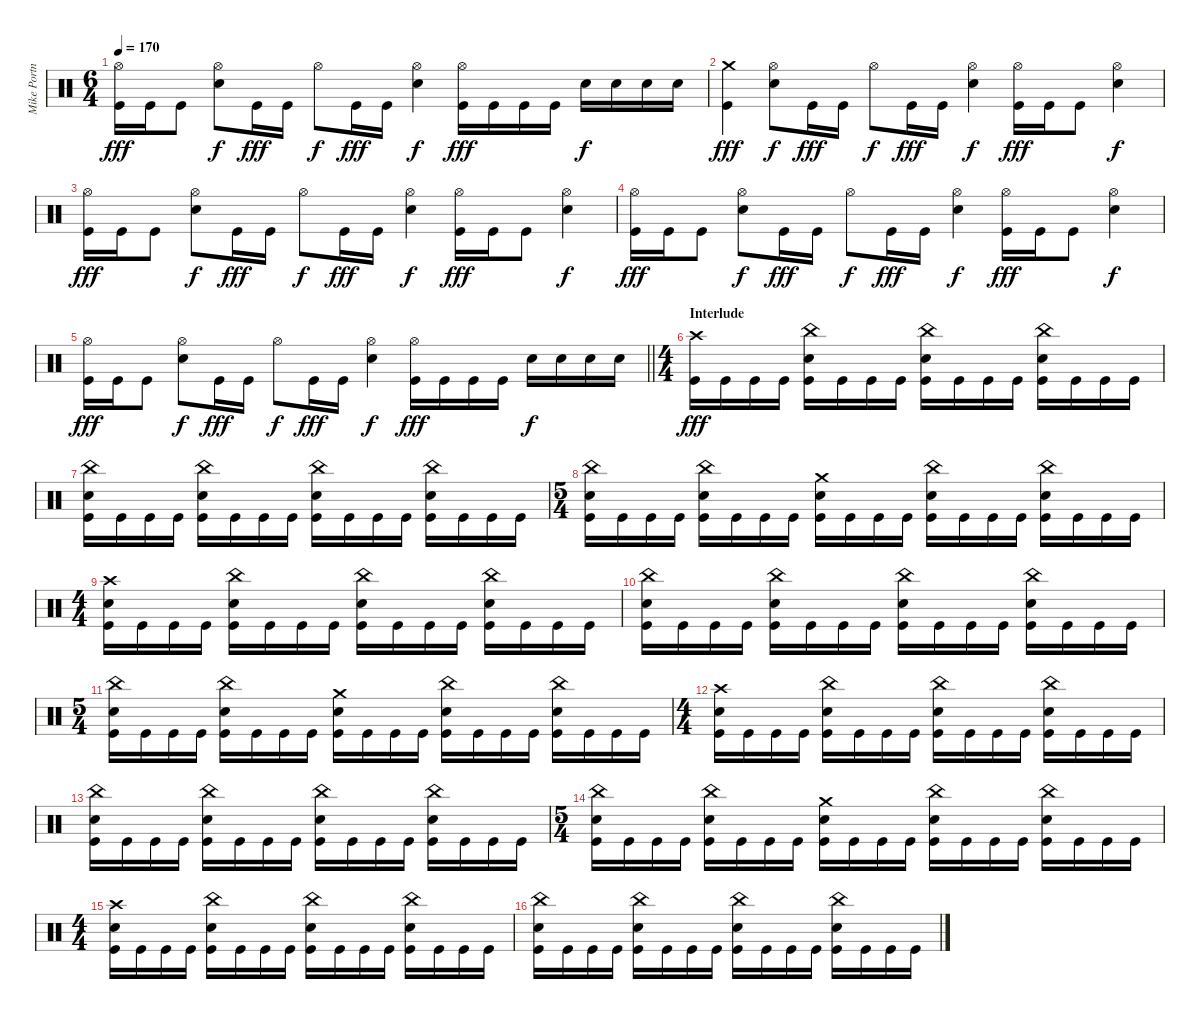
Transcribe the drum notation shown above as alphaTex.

\track ("Mike Portnoy" "Mike Portn") {instrument percussion}
\staff {score}
\articulation defaults
\ts (6 4)
\tempo 170
\clef neutral
\ks c
("Hi-Hat (open)" "Kick (hit)").16{dy fff} "Kick (hit)".16 "Kick (hit)".8 ("Hi-Hat (open)" "Electric Snare (hit)").8{dy f} "Kick (hit)".16{dy fff} "Kick (hit)".16 "Hi-Hat (open)".8{dy f} "Kick (hit)".16{dy fff} "Kick (hit)".16 ("Hi-Hat (open)" "Electric Snare (hit)").4{dy f} ("Hi-Hat (open)" "Kick (hit)").16{dy fff} "Kick (hit)".16 "Kick (hit)".16 "Kick (hit)".16 "Electric Snare (hit)".16{dy f} "Electric Snare (hit)".16 "Electric Snare (hit)".16 "Electric Snare (hit)".16 |
("Crash medium (hit)" "Kick (hit)").4{dy fff} ("Hi-Hat (open)" "Electric Snare (hit)").8{dy f} "Kick (hit)".16{dy fff} "Kick (hit)".16 "Hi-Hat (open)".8{dy f} "Kick (hit)".16{dy fff} "Kick (hit)".16 ("Hi-Hat (open)" "Electric Snare (hit)").4{dy f} ("Hi-Hat (open)" "Kick (hit)").16{dy fff} "Kick (hit)".16 "Kick (hit)".8 ("Hi-Hat (open)" "Electric Snare (hit)").4{dy f} |
("Hi-Hat (open)" "Kick (hit)").16{dy fff} "Kick (hit)".16 "Kick (hit)".8 ("Hi-Hat (open)" "Electric Snare (hit)").8{dy f} "Kick (hit)".16{dy fff} "Kick (hit)".16 "Hi-Hat (open)".8{dy f} "Kick (hit)".16{dy fff} "Kick (hit)".16 ("Hi-Hat (open)" "Electric Snare (hit)").4{dy f} ("Hi-Hat (open)" "Kick (hit)").16{dy fff} "Kick (hit)".16 "Kick (hit)".8 ("Hi-Hat (open)" "Electric Snare (hit)").4{dy f} |
("Hi-Hat (open)" "Kick (hit)").16{dy fff} "Kick (hit)".16 "Kick (hit)".8 ("Hi-Hat (open)" "Electric Snare (hit)").8{dy f} "Kick (hit)".16{dy fff} "Kick (hit)".16 "Hi-Hat (open)".8{dy f} "Kick (hit)".16{dy fff} "Kick (hit)".16 ("Hi-Hat (open)" "Electric Snare (hit)").4{dy f} ("Hi-Hat (open)" "Kick (hit)").16{dy fff} "Kick (hit)".16 "Kick (hit)".8 ("Hi-Hat (open)" "Electric Snare (hit)").4{dy f} |
\barLineRight lightlight
("Hi-Hat (open)" "Kick (hit)").16{dy fff} "Kick (hit)".16 "Kick (hit)".8 ("Hi-Hat (open)" "Electric Snare (hit)").8{dy f} "Kick (hit)".16{dy fff} "Kick (hit)".16 "Hi-Hat (open)".8{dy f} "Kick (hit)".16{dy fff} "Kick (hit)".16 ("Hi-Hat (open)" "Electric Snare (hit)").4{dy f} ("Hi-Hat (open)" "Kick (hit)").16{dy fff} "Kick (hit)".16 "Kick (hit)".16 "Kick (hit)".16 "Electric Snare (hit)".16{dy f} "Electric Snare (hit)".16 "Electric Snare (hit)".16 "Electric Snare (hit)".16 |
\ts (4 4)
\section ("" "Interlude")
("Crash high (hit)" "Kick (hit)").16{dy fff} "Kick (hit)".16 "Kick (hit)".16 "Kick (hit)".16 ("China (hit)" "Electric Snare (hit)" "Kick (hit)").16 "Kick (hit)".16 "Kick (hit)".16 "Kick (hit)".16 ("China (hit)" "Electric Snare (hit)" "Kick (hit)").16 "Kick (hit)".16 "Kick (hit)".16 "Kick (hit)".16 ("China (hit)" "Electric Snare (hit)" "Kick (hit)").16 "Kick (hit)".16 "Kick (hit)".16 "Kick (hit)".16 |
("China (hit)" "Electric Snare (hit)" "Kick (hit)").16 "Kick (hit)".16 "Kick (hit)".16 "Kick (hit)".16 ("China (hit)" "Electric Snare (hit)" "Kick (hit)").16 "Kick (hit)".16 "Kick (hit)".16 "Kick (hit)".16 ("China (hit)" "Electric Snare (hit)" "Kick (hit)").16 "Kick (hit)".16 "Kick (hit)".16 "Kick (hit)".16 ("China (hit)" "Electric Snare (hit)" "Kick (hit)").16 "Kick (hit)".16 "Kick (hit)".16 "Kick (hit)".16 |
\ts (5 4)
("China (hit)" "Electric Snare (hit)" "Kick (hit)").16 "Kick (hit)".16 "Kick (hit)".16 "Kick (hit)".16 ("China (hit)" "Electric Snare (hit)" "Kick (hit)").16 "Kick (hit)".16 "Kick (hit)".16 "Kick (hit)".16 ("Crash medium (hit)" "Electric Snare (hit)" "Kick (hit)").16 "Kick (hit)".16 "Kick (hit)".16 "Kick (hit)".16 ("China (hit)" "Electric Snare (hit)" "Kick (hit)").16 "Kick (hit)".16 "Kick (hit)".16 "Kick (hit)".16 ("China (hit)" "Electric Snare (hit)" "Kick (hit)").16 "Kick (hit)".16 "Kick (hit)".16 "Kick (hit)".16 |
\ts (4 4)
("Crash high (hit)" "Electric Snare (hit)" "Kick (hit)").16 "Kick (hit)".16 "Kick (hit)".16 "Kick (hit)".16 ("China (hit)" "Electric Snare (hit)" "Kick (hit)").16 "Kick (hit)".16 "Kick (hit)".16 "Kick (hit)".16 ("China (hit)" "Electric Snare (hit)" "Kick (hit)").16 "Kick (hit)".16 "Kick (hit)".16 "Kick (hit)".16 ("China (hit)" "Electric Snare (hit)" "Kick (hit)").16 "Kick (hit)".16 "Kick (hit)".16 "Kick (hit)".16 |
("China (hit)" "Electric Snare (hit)" "Kick (hit)").16 "Kick (hit)".16 "Kick (hit)".16 "Kick (hit)".16 ("China (hit)" "Electric Snare (hit)" "Kick (hit)").16 "Kick (hit)".16 "Kick (hit)".16 "Kick (hit)".16 ("China (hit)" "Electric Snare (hit)" "Kick (hit)").16 "Kick (hit)".16 "Kick (hit)".16 "Kick (hit)".16 ("China (hit)" "Electric Snare (hit)" "Kick (hit)").16 "Kick (hit)".16 "Kick (hit)".16 "Kick (hit)".16 |
\ts (5 4)
("China (hit)" "Electric Snare (hit)" "Kick (hit)").16 "Kick (hit)".16 "Kick (hit)".16 "Kick (hit)".16 ("China (hit)" "Electric Snare (hit)" "Kick (hit)").16 "Kick (hit)".16 "Kick (hit)".16 "Kick (hit)".16 ("Crash medium (hit)" "Electric Snare (hit)" "Kick (hit)").16 "Kick (hit)".16 "Kick (hit)".16 "Kick (hit)".16 ("China (hit)" "Electric Snare (hit)" "Kick (hit)").16 "Kick (hit)".16 "Kick (hit)".16 "Kick (hit)".16 ("China (hit)" "Electric Snare (hit)" "Kick (hit)").16 "Kick (hit)".16 "Kick (hit)".16 "Kick (hit)".16 |
\ts (4 4)
("Crash high (hit)" "Electric Snare (hit)" "Kick (hit)").16 "Kick (hit)".16 "Kick (hit)".16 "Kick (hit)".16 ("China (hit)" "Electric Snare (hit)" "Kick (hit)").16 "Kick (hit)".16 "Kick (hit)".16 "Kick (hit)".16 ("China (hit)" "Electric Snare (hit)" "Kick (hit)").16 "Kick (hit)".16 "Kick (hit)".16 "Kick (hit)".16 ("China (hit)" "Electric Snare (hit)" "Kick (hit)").16 "Kick (hit)".16 "Kick (hit)".16 "Kick (hit)".16 |
("China (hit)" "Electric Snare (hit)" "Kick (hit)").16 "Kick (hit)".16 "Kick (hit)".16 "Kick (hit)".16 ("China (hit)" "Electric Snare (hit)" "Kick (hit)").16 "Kick (hit)".16 "Kick (hit)".16 "Kick (hit)".16 ("China (hit)" "Electric Snare (hit)" "Kick (hit)").16 "Kick (hit)".16 "Kick (hit)".16 "Kick (hit)".16 ("China (hit)" "Electric Snare (hit)" "Kick (hit)").16 "Kick (hit)".16 "Kick (hit)".16 "Kick (hit)".16 |
\ts (5 4)
("China (hit)" "Electric Snare (hit)" "Kick (hit)").16 "Kick (hit)".16 "Kick (hit)".16 "Kick (hit)".16 ("China (hit)" "Electric Snare (hit)" "Kick (hit)").16 "Kick (hit)".16 "Kick (hit)".16 "Kick (hit)".16 ("Crash medium (hit)" "Electric Snare (hit)" "Kick (hit)").16 "Kick (hit)".16 "Kick (hit)".16 "Kick (hit)".16 ("China (hit)" "Electric Snare (hit)" "Kick (hit)").16 "Kick (hit)".16 "Kick (hit)".16 "Kick (hit)".16 ("China (hit)" "Electric Snare (hit)" "Kick (hit)").16 "Kick (hit)".16 "Kick (hit)".16 "Kick (hit)".16 |
\ts (4 4)
("Crash high (hit)" "Electric Snare (hit)" "Kick (hit)").16 "Kick (hit)".16 "Kick (hit)".16 "Kick (hit)".16 ("China (hit)" "Electric Snare (hit)" "Kick (hit)").16 "Kick (hit)".16 "Kick (hit)".16 "Kick (hit)".16 ("China (hit)" "Electric Snare (hit)" "Kick (hit)").16 "Kick (hit)".16 "Kick (hit)".16 "Kick (hit)".16 ("China (hit)" "Electric Snare (hit)" "Kick (hit)").16 "Kick (hit)".16 "Kick (hit)".16 "Kick (hit)".16 |
("China (hit)" "Electric Snare (hit)" "Kick (hit)").16 "Kick (hit)".16 "Kick (hit)".16 "Kick (hit)".16 ("China (hit)" "Electric Snare (hit)" "Kick (hit)").16 "Kick (hit)".16 "Kick (hit)".16 "Kick (hit)".16 ("China (hit)" "Electric Snare (hit)" "Kick (hit)").16 "Kick (hit)".16 "Kick (hit)".16 "Kick (hit)".16 ("China (hit)" "Electric Snare (hit)" "Kick (hit)").16 "Kick (hit)".16 "Kick (hit)".16 "Kick (hit)".16
